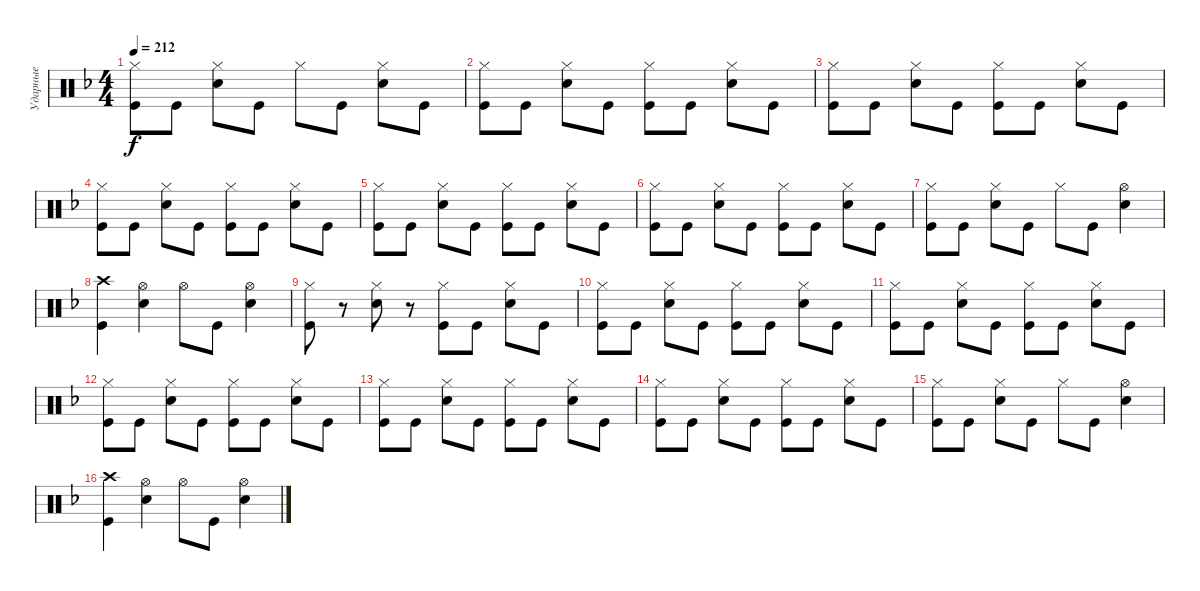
\track ("Ударные" "Ударные") {instrument percussion}
\staff {score}
\articulation defaults
\ts (4 4)
\tempo 212
\clef neutral
\ks dminor
("Kick (hit)" "Hi-Hat (closed)").8{dy f} "Kick (hit)".8 ("Snare (hit) 2" "Hi-Hat (closed)").8 "Kick (hit)".8 "Hi-Hat (closed)".8 "Kick (hit)".8 ("Snare (hit) 2" "Hi-Hat (closed)").8 "Kick (hit)".8 |
("Kick (hit)" "Hi-Hat (closed)").8 "Kick (hit)".8 ("Snare (hit) 2" "Hi-Hat (closed)").8 "Kick (hit)".8 ("Hi-Hat (closed)" "Kick (hit)").8 "Kick (hit)".8 ("Snare (hit) 2" "Hi-Hat (closed)").8 "Kick (hit)".8 |
("Kick (hit)" "Hi-Hat (closed)").8 "Kick (hit)".8 ("Snare (hit) 2" "Hi-Hat (closed)").8 "Kick (hit)".8 ("Hi-Hat (closed)" "Kick (hit)").8 "Kick (hit)".8 ("Snare (hit) 2" "Hi-Hat (closed)").8 "Kick (hit)".8 |
("Kick (hit)" "Hi-Hat (closed)").8 "Kick (hit)".8 ("Snare (hit) 2" "Hi-Hat (closed)").8 "Kick (hit)".8 ("Hi-Hat (closed)" "Kick (hit)").8 "Kick (hit)".8 ("Snare (hit) 2" "Hi-Hat (closed)").8 "Kick (hit)".8 |
("Kick (hit)" "Hi-Hat (closed)").8 "Kick (hit)".8 ("Snare (hit) 2" "Hi-Hat (closed)").8 "Kick (hit)".8 ("Hi-Hat (closed)" "Kick (hit)").8 "Kick (hit)".8 ("Snare (hit) 2" "Hi-Hat (closed)").8 "Kick (hit)".8 |
("Kick (hit)" "Hi-Hat (closed)").8 "Kick (hit)".8 ("Snare (hit) 2" "Hi-Hat (closed)").8 "Kick (hit)".8 ("Hi-Hat (closed)" "Kick (hit)").8 "Kick (hit)".8 ("Snare (hit) 2" "Hi-Hat (closed)").8 "Kick (hit)".8 |
("Kick (hit)" "Hi-Hat (closed)").8 "Kick (hit)".8 ("Snare (hit) 2" "Hi-Hat (closed)").8 "Kick (hit)".8 "Hi-Hat (closed)".8 "Kick (hit)".8 ("Snare (hit) 2" "Hi-Hat (open)").4 |
("Kick (hit)" "Crash high (hit)").4 ("Snare (hit) 2" "Hi-Hat (open)").4 "Hi-Hat (open)".8 "Kick (hit)".8 ("Snare (hit) 2" "Hi-Hat (open)").4 |
("Kick (hit)" "Hi-Hat (closed)").8 r.8 ("Snare (hit) 2" "Hi-Hat (closed)").8 r.8 ("Hi-Hat (closed)" "Kick (hit)").8 "Kick (hit)".8 ("Snare (hit) 2" "Hi-Hat (closed)").8 "Kick (hit)".8 |
("Kick (hit)" "Hi-Hat (closed)").8 "Kick (hit)".8 ("Snare (hit) 2" "Hi-Hat (closed)").8 "Kick (hit)".8 ("Hi-Hat (closed)" "Kick (hit)").8 "Kick (hit)".8 ("Snare (hit) 2" "Hi-Hat (closed)").8 "Kick (hit)".8 |
("Kick (hit)" "Hi-Hat (closed)").8 "Kick (hit)".8 ("Snare (hit) 2" "Hi-Hat (closed)").8 "Kick (hit)".8 ("Hi-Hat (closed)" "Kick (hit)").8 "Kick (hit)".8 ("Snare (hit) 2" "Hi-Hat (closed)").8 "Kick (hit)".8 |
("Kick (hit)" "Hi-Hat (closed)").8 "Kick (hit)".8 ("Snare (hit) 2" "Hi-Hat (closed)").8 "Kick (hit)".8 ("Hi-Hat (closed)" "Kick (hit)").8 "Kick (hit)".8 ("Snare (hit) 2" "Hi-Hat (closed)").8 "Kick (hit)".8 |
("Kick (hit)" "Hi-Hat (closed)").8 "Kick (hit)".8 ("Snare (hit) 2" "Hi-Hat (closed)").8 "Kick (hit)".8 ("Hi-Hat (closed)" "Kick (hit)").8 "Kick (hit)".8 ("Snare (hit) 2" "Hi-Hat (closed)").8 "Kick (hit)".8 |
("Kick (hit)" "Hi-Hat (closed)").8 "Kick (hit)".8 ("Snare (hit) 2" "Hi-Hat (closed)").8 "Kick (hit)".8 ("Hi-Hat (closed)" "Kick (hit)").8 "Kick (hit)".8 ("Snare (hit) 2" "Hi-Hat (closed)").8 "Kick (hit)".8 |
("Kick (hit)" "Hi-Hat (closed)").8 "Kick (hit)".8 ("Snare (hit) 2" "Hi-Hat (closed)").8 "Kick (hit)".8 "Hi-Hat (closed)".8 "Kick (hit)".8 ("Snare (hit) 2" "Hi-Hat (open)").4 |
("Kick (hit)" "Crash high (hit)").4 ("Snare (hit) 2" "Hi-Hat (open)").4 "Hi-Hat (open)".8 "Kick (hit)".8 ("Snare (hit) 2" "Hi-Hat (open)").4
